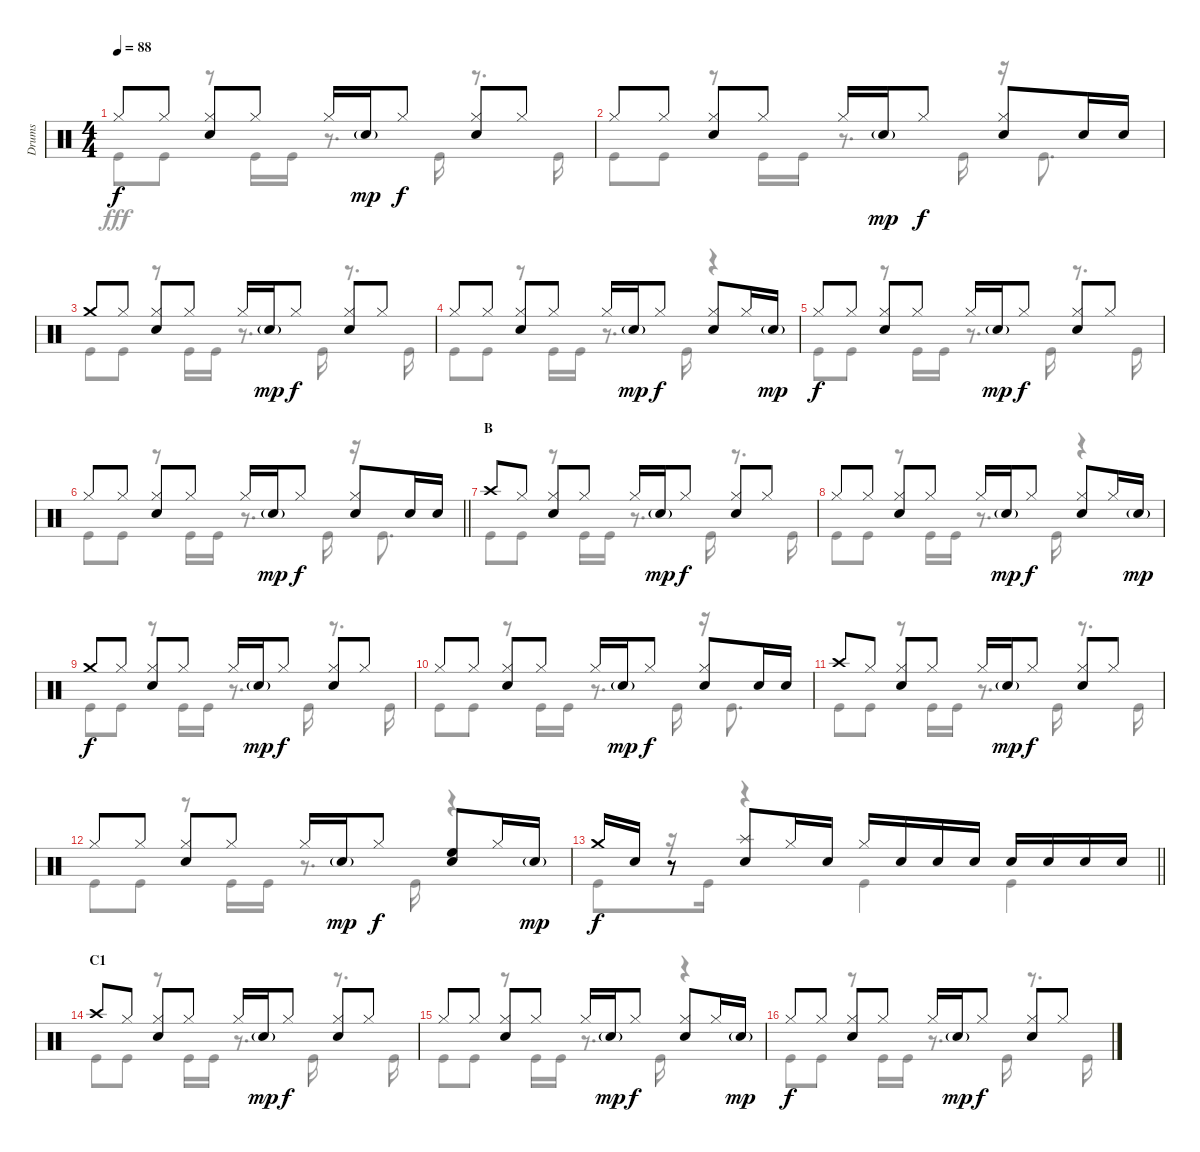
\track ("Drums" "Drums") {instrument percussion}
\staff {score}
\articulation defaults
\voice
\ts (4 4)
\tempo 88
\clef neutral
\ks c "Hi-Hat (closed)".8{dy f} "Hi-Hat (closed)".8
("Hi-Hat (closed)" "Snare (hit) 2").8 "Hi-Hat (closed)".8 "Hi-Hat (closed)".16 "Snare (hit) 2"{g}.16{dy mp} "Hi-Hat (closed)".8{dy f} ("Hi-Hat (closed)" "Snare (hit) 2").8 "Hi-Hat (closed)".8 |
"Hi-Hat (closed)".8 "Hi-Hat (closed)".8 ("Hi-Hat (closed)" "Snare (hit) 2").8 "Hi-Hat (closed)".8 "Hi-Hat (closed)".16 "Snare (hit) 2"{g}.16{dy mp} "Hi-Hat (closed)".8{dy f} ("Hi-Hat (closed)" "Snare (hit) 2").8 "Snare (hit) 2".16 "Snare (hit) 2".16 |
"Crash medium (hit)".8 "Hi-Hat (closed)".8 ("Hi-Hat (closed)" "Snare (hit) 2").8 "Hi-Hat (closed)".8 "Hi-Hat (closed)".16 "Snare (hit) 2"{g}.16{dy mp} "Hi-Hat (closed)".8{dy f} ("Hi-Hat (closed)" "Snare (hit) 2").8 "Hi-Hat (closed)".8 |
"Hi-Hat (closed)".8 "Hi-Hat (closed)".8 ("Hi-Hat (closed)" "Snare (hit) 2").8 "Hi-Hat (closed)".8 "Hi-Hat (closed)".16 "Snare (hit) 2"{g}.16{dy mp} "Hi-Hat (closed)".8{dy f} ("Hi-Hat (closed)" "Snare (hit) 2").8 "Hi-Hat (closed)".16 "Snare (hit) 2"{g}.16{dy mp} |
"Hi-Hat (closed)".8{dy f} "Hi-Hat (closed)".8 ("Hi-Hat (closed)" "Snare (hit) 2").8 "Hi-Hat (closed)".8 "Hi-Hat (closed)".16 "Snare (hit) 2"{g}.16{dy mp} "Hi-Hat (closed)".8{dy f} ("Hi-Hat (closed)" "Snare (hit) 2").8 "Hi-Hat (closed)".8 |
\barLineRight lightlight "Hi-Hat (closed)".8 "Hi-Hat (closed)".8
("Hi-Hat (closed)" "Snare (hit) 2").8 "Hi-Hat (closed)".8 "Hi-Hat (closed)".16 "Snare (hit) 2"{g}.16{dy mp} "Hi-Hat (closed)".8{dy f} ("Hi-Hat (closed)" "Snare (hit) 2").8 "Snare (hit) 2".16 "Snare (hit) 2".16 |
\section ("" "B")
"Crash high (hit)".8 "Hi-Hat (closed)".8 ("Hi-Hat (closed)" "Snare (hit) 2").8 "Hi-Hat (closed)".8 "Hi-Hat (closed)".16 "Snare (hit) 2"{g}.16{dy mp} "Hi-Hat (closed)".8{dy f} ("Hi-Hat (closed)" "Snare (hit) 2").8 "Hi-Hat (closed)".8 |
"Hi-Hat (closed)".8 "Hi-Hat (closed)".8 ("Hi-Hat (closed)" "Snare (hit) 2").8 "Hi-Hat (closed)".8 "Hi-Hat (closed)".16 "Snare (hit) 2"{g}.16{dy mp} "Hi-Hat (closed)".8{dy f} ("Hi-Hat (closed)" "Snare (hit) 2").8 "Hi-Hat (closed)".16 "Snare (hit) 2"{g}.16{dy mp} |
"Crash medium (hit)".8{dy f} "Hi-Hat (closed)".8 ("Hi-Hat (closed)" "Snare (hit) 2").8 "Hi-Hat (closed)".8 "Hi-Hat (closed)".16 "Snare (hit) 2"{g}.16{dy mp} "Hi-Hat (closed)".8{dy f} ("Hi-Hat (closed)" "Snare (hit) 2").8 "Hi-Hat (closed)".8 |
"Hi-Hat (closed)".8 "Hi-Hat (closed)".8 ("Hi-Hat (closed)" "Snare (hit) 2").8 "Hi-Hat (closed)".8 "Hi-Hat (closed)".16 "Snare (hit) 2"{g}.16{dy mp} "Hi-Hat (closed)".8{dy f} ("Hi-Hat (closed)" "Snare (hit) 2").8 "Snare (hit) 2".16 "Snare (hit) 2".16 |
"Crash high (hit)".8 "Hi-Hat (closed)".8 ("Hi-Hat (closed)" "Snare (hit) 2").8 "Hi-Hat (closed)".8 "Hi-Hat (closed)".16 "Snare (hit) 2"{g}.16{dy mp} "Hi-Hat (closed)".8{dy f} ("Hi-Hat (closed)" "Snare (hit) 2").8 "Hi-Hat (closed)".8 |
"Hi-Hat (closed)".8 "Hi-Hat (closed)".8 ("Hi-Hat (closed)" "Snare (hit) 2").8 "Hi-Hat (closed)".8 "Hi-Hat (closed)".16 "Snare (hit) 2"{g}.16{dy mp} "Hi-Hat (closed)".8{dy f} ("High Floor Tom (hit)" "Snare (hit) 2").8 "Hi-Hat (closed)".16 "Snare (hit) 2"{g}.16{dy mp} |
\barLineRight lightlight "Crash medium (hit)".16{dy f} "Snare (hit) 2".16
r.8 ("Splash (hit)" "Snare (hit) 2").8 "Hi-Hat (closed)".16 "Snare (hit) 2".16 "Hi-Hat (closed)".16 "Snare (hit) 2".16 "Snare (hit) 2".16 "Snare (hit) 2".16 "Snare (hit) 2".16 "Snare (hit) 2".16 "Snare (hit) 2".16 "Snare (hit) 2".16 |
\section ("" "C1")
"Crash high (hit)".8 "Hi-Hat (closed)".8 ("Hi-Hat (closed)" "Snare (hit) 2").8 "Hi-Hat (closed)".8 "Hi-Hat (closed)".16 "Snare (hit) 2"{g}.16{dy mp} "Hi-Hat (closed)".8{dy f} ("Hi-Hat (closed)" "Snare (hit) 2").8 "Hi-Hat (closed)".8 |
"Hi-Hat (closed)".8 "Hi-Hat (closed)".8 ("Hi-Hat (closed)" "Snare (hit) 2").8 "Hi-Hat (closed)".8 "Hi-Hat (closed)".16 "Snare (hit) 2"{g}.16{dy mp} "Hi-Hat (closed)".8{dy f} ("Hi-Hat (closed)" "Snare (hit) 2").8 "Hi-Hat (closed)".16 "Snare (hit) 2"{g}.16{dy mp} |
"Hi-Hat (closed)".8{dy f} "Hi-Hat (closed)".8 ("Hi-Hat (closed)" "Snare (hit) 2").8 "Hi-Hat (closed)".8 "Hi-Hat (closed)".16 "Snare (hit) 2"{g}.16{dy mp} "Hi-Hat (closed)".8{dy f} ("Hi-Hat (closed)" "Snare (hit) 2").8 "Hi-Hat (closed)".8
\voice
\clef neutral
\ottava regular
\simile none
\ks c "Kick (hit)".8{dy fff} "Kick (hit)".8
r.8 "Kick (hit)".16 "Kick (hit)".16 r.8{d} "Kick (hit)".16 r.8{d} "Kick (hit)".16 |
"Kick (hit)".8 "Kick (hit)".8 r.8 "Kick (hit)".16 "Kick (hit)".16 r.8{d} "Kick (hit)".16 r.16 "Kick (hit)".8{d} |
"Kick (hit)".8 "Kick (hit)".8 r.8 "Kick (hit)".16 "Kick (hit)".16 r.8{d} "Kick (hit)".16 r.8{d} "Kick (hit)".16 |
"Kick (hit)".8 "Kick (hit)".8 r.8 "Kick (hit)".16 "Kick (hit)".16 r.8{d} "Kick (hit)".16 r.4 |
"Kick (hit)".8 "Kick (hit)".8 r.8 "Kick (hit)".16 "Kick (hit)".16 r.8{d} "Kick (hit)".16 r.8{d} "Kick (hit)".16 |
\barLineRight lightlight "Kick (hit)".8 "Kick (hit)".8
r.8 "Kick (hit)".16 "Kick (hit)".16 r.8{d} "Kick (hit)".16 r.16 "Kick (hit)".8{d} |
"Kick (hit)".8 "Kick (hit)".8 r.8 "Kick (hit)".16 "Kick (hit)".16 r.8{d} "Kick (hit)".16 r.8{d} "Kick (hit)".16 |
"Kick (hit)".8 "Kick (hit)".8 r.8 "Kick (hit)".16 "Kick (hit)".16 r.8{d} "Kick (hit)".16 r.4 |
"Kick (hit)".8 "Kick (hit)".8 r.8 "Kick (hit)".16 "Kick (hit)".16 r.8{d} "Kick (hit)".16 r.8{d} "Kick (hit)".16 |
"Kick (hit)".8 "Kick (hit)".8 r.8 "Kick (hit)".16 "Kick (hit)".16 r.8{d} "Kick (hit)".16 r.16 "Kick (hit)".8{d} |
"Kick (hit)".8 "Kick (hit)".8 r.8 "Kick (hit)".16 "Kick (hit)".16 r.8{d} "Kick (hit)".16 r.8{d} "Kick (hit)".16 |
"Kick (hit)".8 "Kick (hit)".8 r.8 "Kick (hit)".16 "Kick (hit)".16 r.8{d} "Kick (hit)".16 r.4 |
\barLineRight lightlight "Kick (hit)".8
r.16 "Kick (hit)".16 r.4 "Kick (hit)".4 "Kick (hit)".4 |
"Kick (hit)".8 "Kick (hit)".8 r.8 "Kick (hit)".16 "Kick (hit)".16 r.8{d} "Kick (hit)".16 r.8{d} "Kick (hit)".16 |
"Kick (hit)".8 "Kick (hit)".8 r.8 "Kick (hit)".16 "Kick (hit)".16 r.8{d} "Kick (hit)".16 r.4 |
"Kick (hit)".8 "Kick (hit)".8 r.8 "Kick (hit)".16 "Kick (hit)".16 r.8{d} "Kick (hit)".16 r.8{d} "Kick (hit)".16
